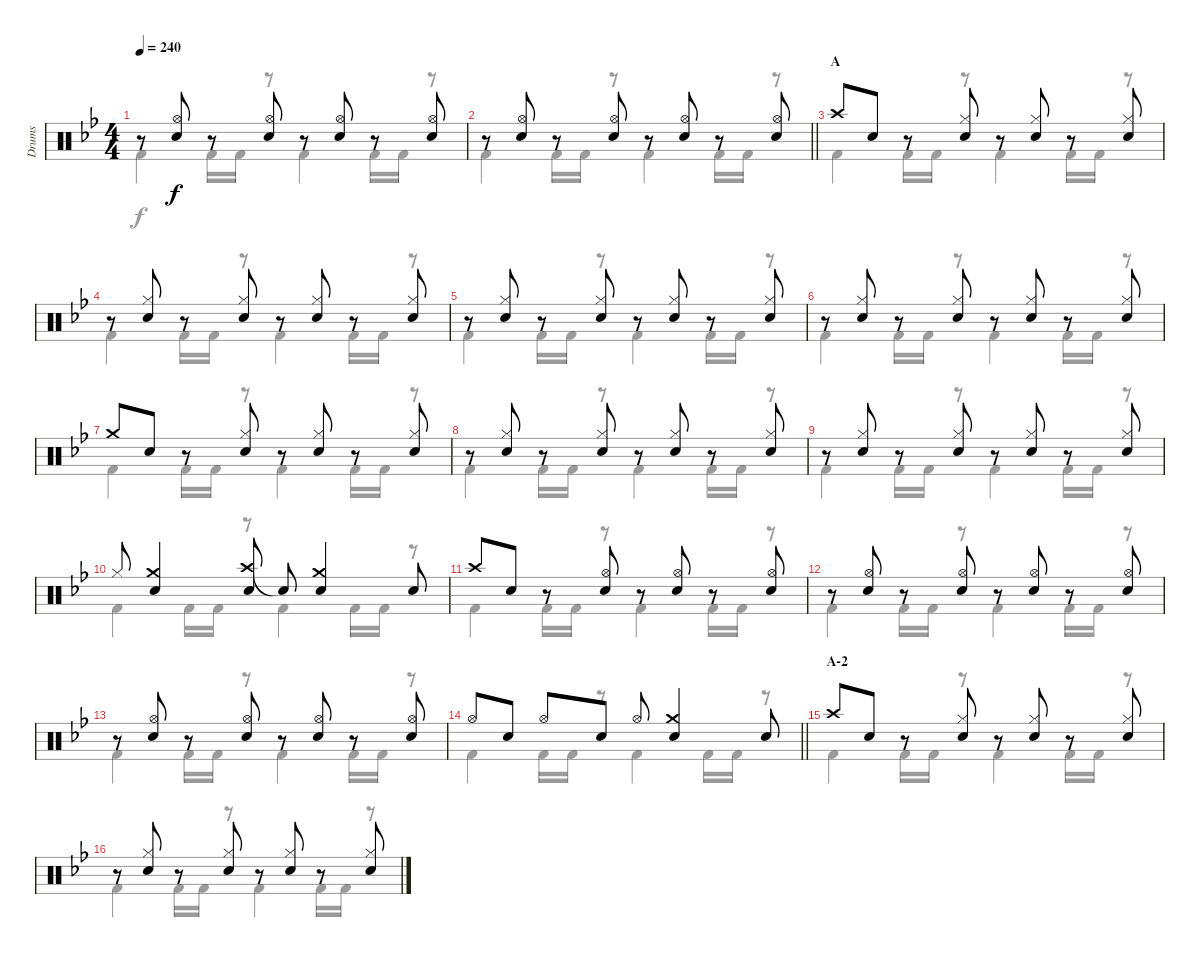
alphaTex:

\track ("Drums" "Drums") {instrument percussion}
\staff {score}
\articulation defaults
\voice
\ts (4 4)
\tempo 240
\clef neutral
\ks bb
r.8{dy f} ("Hi-Hat (open)" "Snare (hit) 2").8 r.8 ("Hi-Hat (open)" "Snare (hit) 2").8 r.8 ("Hi-Hat (open)" "Snare (hit) 2").8 r.8 ("Hi-Hat (open)" "Snare (hit) 2").8 |
\barLineRight lightlight
r.8 ("Hi-Hat (open)" "Snare (hit) 2").8 r.8 ("Hi-Hat (open)" "Snare (hit) 2").8 r.8 ("Hi-Hat (open)" "Snare (hit) 2").8 r.8 ("Hi-Hat (open)" "Snare (hit) 2").8 |
\section ("" "A")
"Crash high (hit)".8 "Snare (hit) 2".8 r.8 ("Hi-Hat (closed)" "Snare (hit) 2").8 r.8 ("Hi-Hat (closed)" "Snare (hit) 2").8 r.8 ("Hi-Hat (closed)" "Snare (hit) 2").8 |
r.8 ("Hi-Hat (closed)" "Snare (hit) 2").8 r.8 ("Hi-Hat (closed)" "Snare (hit) 2").8 r.8 ("Hi-Hat (closed)" "Snare (hit) 2").8 r.8 ("Hi-Hat (closed)" "Snare (hit) 2").8 |
r.8 ("Hi-Hat (closed)" "Snare (hit) 2").8 r.8 ("Hi-Hat (closed)" "Snare (hit) 2").8 r.8 ("Hi-Hat (closed)" "Snare (hit) 2").8 r.8 ("Hi-Hat (closed)" "Snare (hit) 2").8 |
r.8 ("Hi-Hat (closed)" "Snare (hit) 2").8 r.8 ("Hi-Hat (closed)" "Snare (hit) 2").8 r.8 ("Hi-Hat (closed)" "Snare (hit) 2").8 r.8 ("Hi-Hat (closed)" "Snare (hit) 2").8 |
"Crash medium (hit)".8 "Snare (hit) 2".8 r.8 ("Hi-Hat (closed)" "Snare (hit) 2").8 r.8 ("Hi-Hat (closed)" "Snare (hit) 2").8 r.8 ("Hi-Hat (closed)" "Snare (hit) 2").8 |
r.8 ("Hi-Hat (closed)" "Snare (hit) 2").8 r.8 ("Hi-Hat (closed)" "Snare (hit) 2").8 r.8 ("Hi-Hat (closed)" "Snare (hit) 2").8 r.8 ("Hi-Hat (closed)" "Snare (hit) 2").8 |
r.8 ("Hi-Hat (closed)" "Snare (hit) 2").8 r.8 ("Hi-Hat (closed)" "Snare (hit) 2").8 r.8 ("Hi-Hat (closed)" "Snare (hit) 2").8 r.8 ("Hi-Hat (closed)" "Snare (hit) 2").8 |
"Hi-Hat (closed)".8 ("Crash medium (hit)" "Snare (hit) 2").4 ("Crash high (hit)" "Snare (hit) 2").8 "Snare (hit)"{t}.8 ("Crash medium (hit)" "Snare (hit) 2").4 "Snare (hit) 2".8 |
"Crash high (hit)".8 "Snare (hit) 2".8 r.8 ("Hi-Hat (open)" "Snare (hit) 2").8 r.8 ("Hi-Hat (open)" "Snare (hit) 2").8 r.8 ("Hi-Hat (open)" "Snare (hit) 2").8 |
r.8 ("Hi-Hat (open)" "Snare (hit) 2").8 r.8 ("Hi-Hat (open)" "Snare (hit) 2").8 r.8 ("Hi-Hat (open)" "Snare (hit) 2").8 r.8 ("Hi-Hat (open)" "Snare (hit) 2").8 |
r.8 ("Hi-Hat (open)" "Snare (hit) 2").8 r.8 ("Hi-Hat (open)" "Snare (hit) 2").8 r.8 ("Hi-Hat (open)" "Snare (hit) 2").8 r.8 ("Hi-Hat (open)" "Snare (hit) 2").8 |
\barLineRight lightlight "Hi-Hat (open)".8 "Snare (hit) 2".8 "Hi-Hat (open)".8 "Snare (hit) 2".8 "Hi-Hat (open)".8
("Crash medium (hit)" "Snare (hit) 2").4 "Snare (hit) 2".8 |
\section ("" "A-2")
"Crash high (hit)".8 "Snare (hit) 2".8 r.8 ("Hi-Hat (closed)" "Snare (hit) 2").8 r.8 ("Hi-Hat (closed)" "Snare (hit) 2").8 r.8 ("Hi-Hat (closed)" "Snare (hit) 2").8 |
r.8 ("Hi-Hat (closed)" "Snare (hit) 2").8 r.8 ("Hi-Hat (closed)" "Snare (hit) 2").8 r.8 ("Hi-Hat (closed)" "Snare (hit) 2").8 r.8 ("Hi-Hat (closed)" "Snare (hit) 2").8
\voice
\clef neutral
\ottava regular
\simile none
\ks bb "Kick (hit) 2".4{dy f} "Kick (hit) 2".16 "Kick (hit) 2".16
r.8 "Kick (hit) 2".4 "Kick (hit) 2".16 "Kick (hit) 2".16 r.8 |
\barLineRight lightlight "Kick (hit) 2".4 "Kick (hit) 2".16 "Kick (hit) 2".16
r.8 "Kick (hit) 2".4 "Kick (hit) 2".16 "Kick (hit) 2".16 r.8 |
"Kick (hit) 2".4 "Kick (hit) 2".16 "Kick (hit) 2".16 r.8 "Kick (hit) 2".4 "Kick (hit) 2".16 "Kick (hit) 2".16 r.8 |
"Kick (hit) 2".4 "Kick (hit) 2".16 "Kick (hit) 2".16 r.8 "Kick (hit) 2".4 "Kick (hit) 2".16 "Kick (hit) 2".16 r.8 |
"Kick (hit) 2".4 "Kick (hit) 2".16 "Kick (hit) 2".16 r.8 "Kick (hit) 2".4 "Kick (hit) 2".16 "Kick (hit) 2".16 r.8 |
"Kick (hit) 2".4 "Kick (hit) 2".16 "Kick (hit) 2".16 r.8 "Kick (hit) 2".4 "Kick (hit) 2".16 "Kick (hit) 2".16 r.8 |
"Kick (hit) 2".4 "Kick (hit) 2".16 "Kick (hit) 2".16 r.8 "Kick (hit) 2".4 "Kick (hit) 2".16 "Kick (hit) 2".16 r.8 |
"Kick (hit) 2".4 "Kick (hit) 2".16 "Kick (hit) 2".16 r.8 "Kick (hit) 2".4 "Kick (hit) 2".16 "Kick (hit) 2".16 r.8 |
"Kick (hit) 2".4 "Kick (hit) 2".16 "Kick (hit) 2".16 r.8 "Kick (hit) 2".4 "Kick (hit) 2".16 "Kick (hit) 2".16 r.8 |
"Kick (hit) 2".4 "Kick (hit) 2".16 "Kick (hit) 2".16 r.8 "Kick (hit) 2".4 "Kick (hit) 2".16 "Kick (hit) 2".16 r.8 |
"Kick (hit) 2".4 "Kick (hit) 2".16 "Kick (hit) 2".16 r.8 "Kick (hit) 2".4 "Kick (hit) 2".16 "Kick (hit) 2".16 r.8 |
"Kick (hit) 2".4 "Kick (hit) 2".16 "Kick (hit) 2".16 r.8 "Kick (hit) 2".4 "Kick (hit) 2".16 "Kick (hit) 2".16 r.8 |
"Kick (hit) 2".4 "Kick (hit) 2".16 "Kick (hit) 2".16 r.8 "Kick (hit) 2".4 "Kick (hit) 2".16 "Kick (hit) 2".16 r.8 |
\barLineRight lightlight "Kick (hit) 2".4 "Kick (hit) 2".16 "Kick (hit) 2".16
r.8 "Kick (hit) 2".4 "Kick (hit) 2".16 "Kick (hit) 2".16 r.8 |
"Kick (hit) 2".4 "Kick (hit) 2".16 "Kick (hit) 2".16 r.8 "Kick (hit) 2".4 "Kick (hit) 2".16 "Kick (hit) 2".16 r.8 |
"Kick (hit) 2".4 "Kick (hit) 2".16 "Kick (hit) 2".16 r.8 "Kick (hit) 2".4 "Kick (hit) 2".16 "Kick (hit) 2".16 r.8
